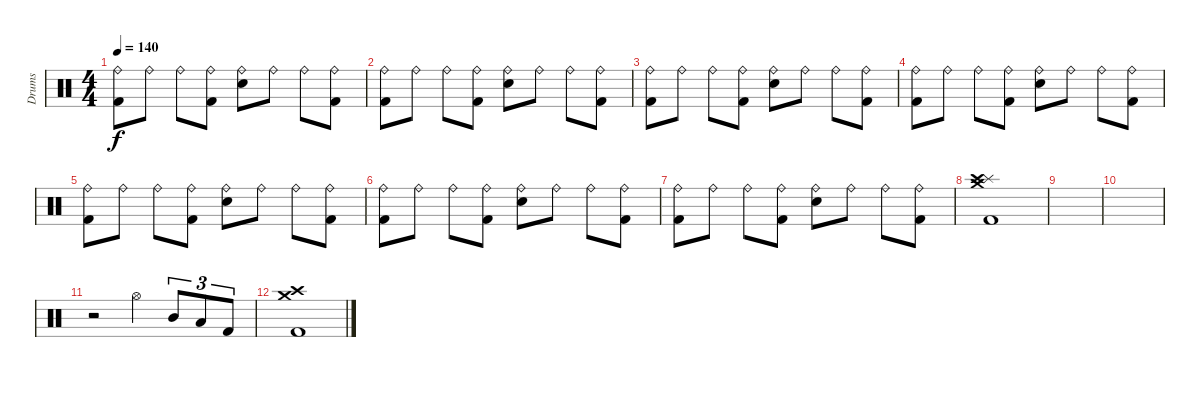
\track ("Drums" "Drums") {instrument percussion}
\staff {score}
\articulation defaults
\ts (4 4)
\tempo 140
\clef neutral
\ks c
("Ride (bell)" "Kick (hit) 2").8{dy f} "Ride (bell)".8 "Ride (bell)".8 ("Ride (bell)" "Kick (hit) 2").8 ("Ride (bell)" "Snare (hit) 2").8 "Ride (bell)".8 "Ride (bell)".8 ("Ride (bell)" "Kick (hit) 2").8 |
("Ride (bell)" "Kick (hit) 2").8 "Ride (bell)".8 "Ride (bell)".8 ("Ride (bell)" "Kick (hit) 2").8 ("Ride (bell)" "Snare (hit) 2").8 "Ride (bell)".8 "Ride (bell)".8 ("Ride (bell)" "Kick (hit) 2").8 |
("Ride (bell)" "Kick (hit) 2").8 "Ride (bell)".8 "Ride (bell)".8 ("Ride (bell)" "Kick (hit) 2").8 ("Ride (bell)" "Snare (hit) 2").8 "Ride (bell)".8 "Ride (bell)".8 ("Ride (bell)" "Kick (hit) 2").8 |
("Ride (bell)" "Kick (hit) 2").8 "Ride (bell)".8 "Ride (bell)".8 ("Ride (bell)" "Kick (hit) 2").8 ("Ride (bell)" "Snare (hit) 2").8 "Ride (bell)".8 "Ride (bell)".8 ("Ride (bell)" "Kick (hit) 2").8 |
("Ride (bell)" "Kick (hit) 2").8 "Ride (bell)".8 "Ride (bell)".8 ("Ride (bell)" "Kick (hit) 2").8 ("Ride (bell)" "Snare (hit) 2").8 "Ride (bell)".8 "Ride (bell)".8 ("Ride (bell)" "Kick (hit) 2").8 |
("Ride (bell)" "Kick (hit) 2").8 "Ride (bell)".8 "Ride (bell)".8 ("Ride (bell)" "Kick (hit) 2").8 ("Ride (bell)" "Snare (hit) 2").8 "Ride (bell)".8 "Ride (bell)".8 ("Ride (bell)" "Kick (hit) 2").8 |
("Ride (bell)" "Kick (hit) 2").8 "Ride (bell)".8 "Ride (bell)".8 ("Ride (bell)" "Kick (hit) 2").8 ("Ride (bell)" "Snare (hit) 2").8 "Ride (bell)".8 "Ride (bell)".8 ("Ride (bell)" "Kick (hit) 2").8 |
("Splash (hit)" "Crash medium (hit)" "Crash high (hit)" "Kick (hit) 2").1 |
|
|
r.2 "Hi-Hat (open)".4 "Mid Tom (hit)".8{tu (3 2)} "Low Tom (hit)".8{tu (3 2)} "Kick (hit) 2".8{tu (3 2)} |
("Crash medium (hit)" "Crash high (hit)" "Kick (hit) 2").1
